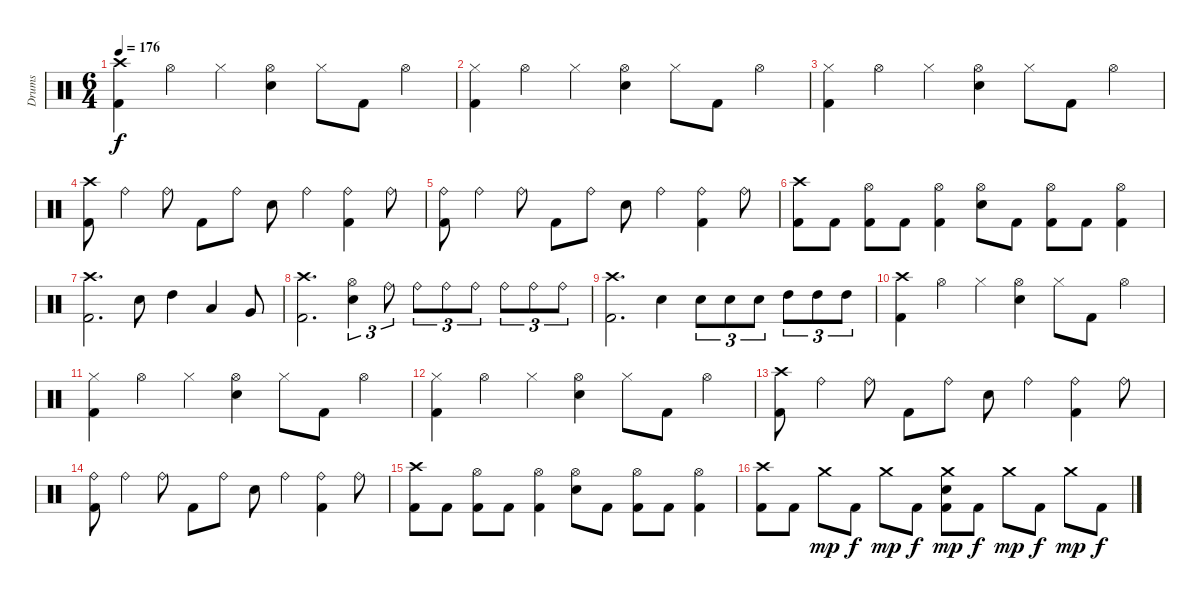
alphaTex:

\track ("Drums" "Drums") {instrument percussion}
\staff {score}
\articulation defaults
\ts (6 4)
\tempo 176
\clef neutral
\ks c
("Crash high (hit)" "Kick (hit) 2").4{dy f} "Hi-Hat (open)".4 "Hi-Hat (closed)".4 ("Hi-Hat (open)" "Snare (hit) 2").4 "Hi-Hat (closed)".8 "Kick (hit) 2".8 "Hi-Hat (open)".4 |
("Hi-Hat (closed)" "Kick (hit) 2").4 "Hi-Hat (open)".4 "Hi-Hat (closed)".4 ("Hi-Hat (open)" "Snare (hit) 2").4 "Hi-Hat (closed)".8 "Kick (hit) 2".8 "Hi-Hat (open)".4 |
("Hi-Hat (closed)" "Kick (hit) 2").4 "Hi-Hat (open)".4 "Hi-Hat (closed)".4 ("Hi-Hat (open)" "Snare (hit) 2").4 "Hi-Hat (closed)".8 "Kick (hit) 2".8 "Hi-Hat (open)".4 |
("Crash high (hit)" "Kick (hit) 2").8 "Ride (bell)".4 "Ride (bell)".8 "Kick (hit) 2".8 "Ride (bell)".8 "Snare (hit) 2".8 "Ride (bell)".4 ("Ride (bell)" "Kick (hit) 2").4 "Ride (bell)".8 |
("Ride (bell)" "Kick (hit) 2").8 "Ride (bell)".4 "Ride (bell)".8 "Kick (hit) 2".8 "Ride (bell)".8 "Snare (hit) 2".8 "Ride (bell)".4 ("Ride (bell)" "Kick (hit) 2").4 "Ride (bell)".8 |
("Crash high (hit)" "Kick (hit) 2").8 "Kick (hit) 2".8 ("Hi-Hat (open)" "Kick (hit) 2").8 "Kick (hit) 2".8 ("Hi-Hat (open)" "Kick (hit) 2").4 ("Hi-Hat (open)" "Snare (hit) 2").8 "Kick (hit) 2".8 ("Hi-Hat (open)" "Kick (hit) 2").8 "Kick (hit) 2".8 ("Hi-Hat (open)" "Kick (hit) 2").4 |
("Crash high (hit)" "Kick (hit) 2").2{d} "Snare (hit) 2".8 "High Tom (hit)".4 "Low Tom (hit)".4 "Very Low Tom (hit)".8 |
("Crash high (hit)" "Kick (hit) 2").2{d} ("Hi-Hat (open)" "Snare (hit) 2").4{tu (3 2)} "Ride (bell)".8{tu (3 2)} "Ride (bell)".8{tu (3 2)} "Ride (bell)".8{tu (3 2)} "Ride (bell)".8{tu (3 2)} "Ride (bell)".8{tu (3 2)} "Ride (bell)".8{tu (3 2)} "Ride (bell)".8{tu (3 2)} |
("Crash high (hit)" "Kick (hit) 2").2{d} "Snare (hit) 2".4 "Snare (hit) 2".8{tu (3 2)} "Snare (hit) 2".8{tu (3 2)} "Snare (hit) 2".8{tu (3 2)} "High Tom (hit)".8{tu (3 2)} "High Tom (hit)".8{tu (3 2)} "High Tom (hit)".8{tu (3 2)} |
("Crash high (hit)" "Kick (hit) 2").4 "Hi-Hat (open)".4 "Hi-Hat (closed)".4 ("Hi-Hat (open)" "Snare (hit) 2").4 "Hi-Hat (closed)".8 "Kick (hit) 2".8 "Hi-Hat (open)".4 |
("Hi-Hat (closed)" "Kick (hit) 2").4 "Hi-Hat (open)".4 "Hi-Hat (closed)".4 ("Hi-Hat (open)" "Snare (hit) 2").4 "Hi-Hat (closed)".8 "Kick (hit) 2".8 "Hi-Hat (open)".4 |
("Hi-Hat (closed)" "Kick (hit) 2").4 "Hi-Hat (open)".4 "Hi-Hat (closed)".4 ("Hi-Hat (open)" "Snare (hit) 2").4 "Hi-Hat (closed)".8 "Kick (hit) 2".8 "Hi-Hat (open)".4 |
("Crash high (hit)" "Kick (hit) 2").8 "Ride (bell)".4 "Ride (bell)".8 "Kick (hit) 2".8 "Ride (bell)".8 "Snare (hit) 2".8 "Ride (bell)".4 ("Ride (bell)" "Kick (hit) 2").4 "Ride (bell)".8 |
("Ride (bell)" "Kick (hit) 2").8 "Ride (bell)".4 "Ride (bell)".8 "Kick (hit) 2".8 "Ride (bell)".8 "Snare (hit) 2".8 "Ride (bell)".4 ("Ride (bell)" "Kick (hit) 2").4 "Ride (bell)".8 |
("Crash high (hit)" "Kick (hit) 2").8 "Kick (hit) 2".8 ("Hi-Hat (open)" "Kick (hit) 2").8 "Kick (hit) 2".8 ("Hi-Hat (open)" "Kick (hit) 2").4 ("Hi-Hat (open)" "Snare (hit) 2").8 "Kick (hit) 2".8 ("Hi-Hat (open)" "Kick (hit) 2").8 "Kick (hit) 2".8 ("Hi-Hat (open)" "Kick (hit) 2").4 |
("Crash high (hit)" "Kick (hit) 2").8 "Kick (hit) 2".8 "Crash medium (hit)".8{dy mp} "Kick (hit) 2".8{dy f} "Crash medium (hit)".8{dy mp} "Kick (hit) 2".8{dy f} ("Crash medium (hit)" "Snare (hit) 2" "Kick (hit) 2").8{dy mp} "Kick (hit) 2".8{dy f} "Crash medium (hit)".8{dy mp} "Kick (hit) 2".8{dy f} "Crash medium (hit)".8{dy mp} "Kick (hit) 2".8{dy f}
